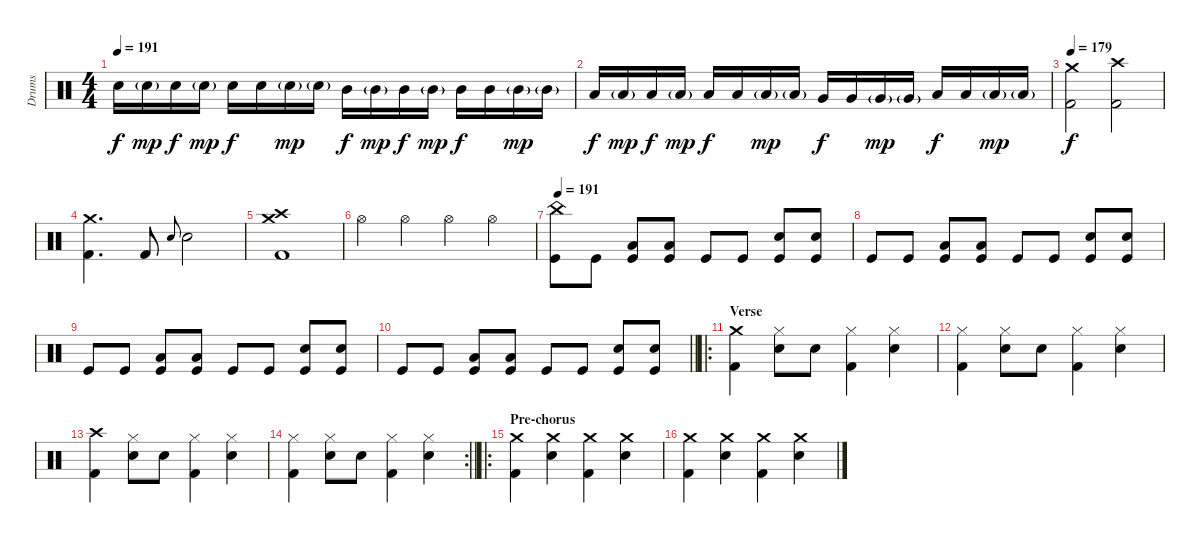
\track ("Drums" "Drums") {instrument percussion}
\staff {score}
\articulation defaults
\ts (4 4)
\tempo 191
\clef neutral
\ks c "Electric Snare (hit)".16{dy f} "Electric Snare (hit)"{g}.16{dy mp} "Electric Snare (hit)".16{dy f} "Electric Snare (hit)"{g}.16{dy mp} "Electric Snare (hit)".16{dy f} "Electric Snare (hit)".16 "Electric Snare (hit)"{g}.16{dy mp} "Electric Snare (hit)"{g}.16 "Mid Tom (hit)".16{dy f} "Mid Tom (hit)"{g}.16{dy mp} "Mid Tom (hit)".16{dy f} "Mid Tom (hit)"{g}.16{dy mp} "Mid Tom (hit)".16{dy f} "Mid Tom (hit)".16 "Mid Tom (hit)"{g}.16{dy mp} "Mid Tom (hit)"{g}.16
|
"Low Tom (hit)".16{dy f} "Low Tom (hit)"{g}.16{dy mp} "Low Tom (hit)".16{dy f} "Low Tom (hit)"{g}.16{dy mp} "Low Tom (hit)".16{dy f} "Low Tom (hit)".16 "Low Tom (hit)"{g}.16{dy mp} "Low Tom (hit)"{g}.16 "Very Low Tom (hit)".16{dy f} "Very Low Tom (hit)".16 "Very Low Tom (hit)"{g}.16{dy mp} "Very Low Tom (hit)"{g}.16 "Low Floor Tom (hit)".16{dy f} "Low Floor Tom (hit)".16 "Low Floor Tom (hit)"{g}.16{dy mp} "Low Floor Tom (hit)"{g}.16 |
\tempo 179
("Crash medium (hit)" "Kick (hit) 2").2{dy f} ("Crash high (hit)" "Kick (hit) 2").2 |
("Crash medium (hit)" "Kick (hit) 2").4{d} "Kick (hit) 2".8 "Snare (hit) 2".8{gr onbeat} "Snare (hit) 2".2 |
("Crash high (hit)" "Crash medium (hit)" "Kick (hit) 2").1 |
"Hi-Hat (open)".4 "Hi-Hat (open)".4 "Hi-Hat (open)".4 "Hi-Hat (open)".4 |
\tempo 191
("China (hit)" "Kick (hit)").8 "Kick (hit)".8 ("Low Floor Tom (hit)" "Kick (hit)").8 ("Low Floor Tom (hit)" "Kick (hit)").8 "Kick (hit)".8 "Kick (hit)".8 ("Electric Snare (hit)" "Kick (hit)").8 ("Electric Snare (hit)" "Kick (hit)").8 |
"Kick (hit)".8 "Kick (hit)".8 ("Low Floor Tom (hit)" "Kick (hit)").8 ("Low Floor Tom (hit)" "Kick (hit)").8 "Kick (hit)".8 "Kick (hit)".8 ("Electric Snare (hit)" "Kick (hit)").8 ("Electric Snare (hit)" "Kick (hit)").8 |
"Kick (hit)".8 "Kick (hit)".8 ("Low Floor Tom (hit)" "Kick (hit)").8 ("Low Floor Tom (hit)" "Kick (hit)").8 "Kick (hit)".8 "Kick (hit)".8 ("Electric Snare (hit)" "Kick (hit)").8 ("Electric Snare (hit)" "Kick (hit)").8 |
\barLineRight lightlight "Kick (hit)".8 "Kick (hit)".8
("Low Floor Tom (hit)" "Kick (hit)").8 ("Low Floor Tom (hit)" "Kick (hit)").8 "Kick (hit)".8 "Kick (hit)".8 ("Electric Snare (hit)" "Kick (hit)").8 ("Electric Snare (hit)" "Kick (hit)").8 |
\ro
\section ("" "Verse")
("Crash medium (hit)" "Kick (hit) 2").4 ("Hi-Hat (closed)" "Electric Snare (hit)").8 "Electric Snare (hit)".8 ("Hi-Hat (closed)" "Kick (hit) 2").4 ("Hi-Hat (closed)" "Electric Snare (hit)").4 |
("Hi-Hat (closed)" "Kick (hit) 2").4 ("Hi-Hat (closed)" "Electric Snare (hit)").8 "Electric Snare (hit)".8 ("Hi-Hat (closed)" "Kick (hit) 2").4 ("Hi-Hat (closed)" "Electric Snare (hit)").4 |
("Crash high (hit)" "Kick (hit) 2").4 ("Hi-Hat (closed)" "Electric Snare (hit)").8 "Electric Snare (hit)".8 ("Hi-Hat (closed)" "Kick (hit) 2").4 ("Hi-Hat (closed)" "Electric Snare (hit)").4 |
\rc 2
\barLineRight lightlight
("Hi-Hat (closed)" "Kick (hit) 2").4 ("Hi-Hat (closed)" "Electric Snare (hit)").8 "Electric Snare (hit)".8 ("Hi-Hat (closed)" "Kick (hit) 2").4 ("Hi-Hat (closed)" "Electric Snare (hit)").4 |
\ro
\section ("" "Pre-chorus")
("Crash medium (hit)" "Kick (hit) 2").4 ("Crash medium (hit)" "Snare (hit) 2").4 ("Crash medium (hit)" "Kick (hit) 2").4 ("Crash medium (hit)" "Snare (hit) 2").4 |
("Crash medium (hit)" "Kick (hit) 2").4 ("Crash medium (hit)" "Snare (hit) 2").4 ("Crash medium (hit)" "Kick (hit) 2").4 ("Crash medium (hit)" "Snare (hit) 2").4
